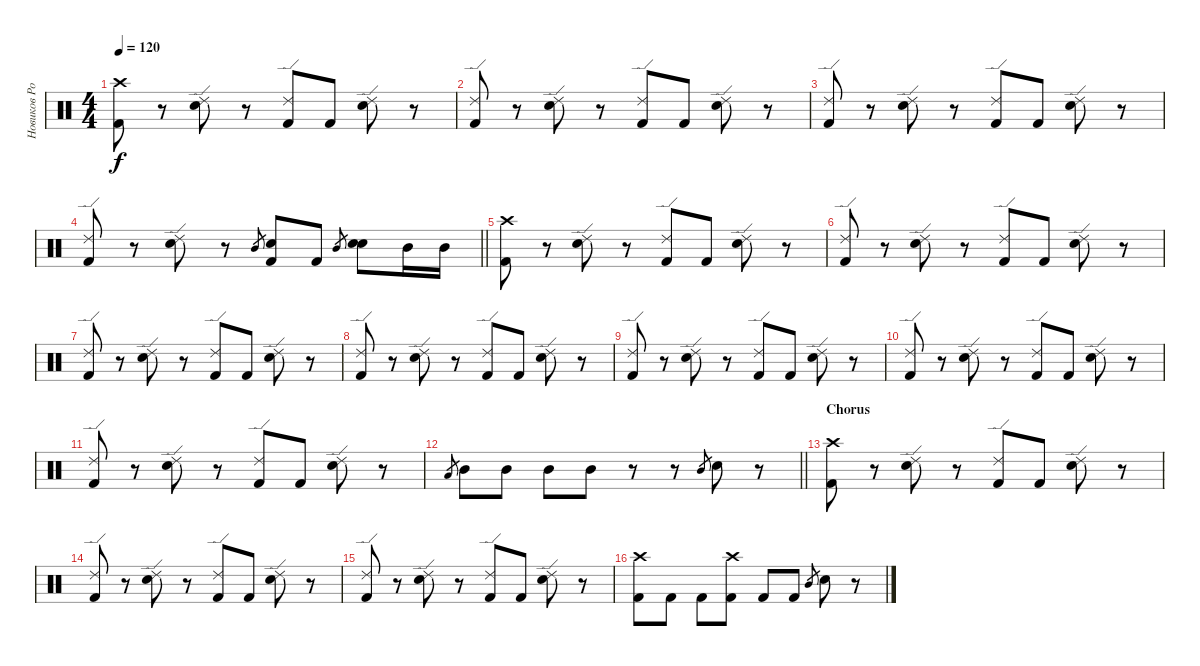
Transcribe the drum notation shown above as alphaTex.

\track ("Новиков Роман  ( Ударные )" "Новиков Ро") {instrument percussion}
\staff {score}
\articulation defaults
\ts (4 4)
\tempo 120
\clef neutral
\ks c
("Crash high (hit)" "Kick (hit) 2").8{dy f} r.8 ("Ride (edge) 2" "Electric Snare (hit)").8 r.8 ("Ride (edge) 2" "Kick (hit) 2").8 "Kick (hit) 2".8 ("Ride (edge) 2" "Electric Snare (hit)").8 r.8 |
("Ride (edge) 2" "Kick (hit) 2").8 r.8 ("Ride (edge) 2" "Electric Snare (hit)").8 r.8 ("Ride (edge) 2" "Kick (hit) 2").8 "Kick (hit) 2".8 ("Ride (edge) 2" "Electric Snare (hit)").8 r.8 |
("Ride (edge) 2" "Kick (hit) 2").8 r.8 ("Ride (edge) 2" "Electric Snare (hit)").8 r.8 ("Ride (edge) 2" "Kick (hit) 2").8 "Kick (hit) 2".8 ("Ride (edge) 2" "Electric Snare (hit)").8 r.8 |
\barLineRight lightlight
("Ride (edge) 2" "Kick (hit) 2").8 r.8 ("Ride (edge) 2" "Electric Snare (hit)").8 r.8 "Mid Tom (hit)"{h}.8{gr} ("Snare (hit) 2" "Kick (hit) 2").8 "Kick (hit) 2".8 "Mid Tom (hit)"{h}.8{gr} ("Snare (hit) 2" "Electric Snare (hit)").8 "Mid Tom (hit)".16 "Mid Tom (hit)".16 |
("Crash high (hit)" "Kick (hit) 2").8 r.8 ("Ride (edge) 2" "Electric Snare (hit)").8 r.8 ("Ride (edge) 2" "Kick (hit) 2").8 "Kick (hit) 2".8 ("Ride (edge) 2" "Electric Snare (hit)").8 r.8 |
("Ride (edge) 2" "Kick (hit) 2").8 r.8 ("Ride (edge) 2" "Electric Snare (hit)").8 r.8 ("Ride (edge) 2" "Kick (hit) 2").8 "Kick (hit) 2".8 ("Ride (edge) 2" "Electric Snare (hit)").8 r.8 |
("Ride (edge) 2" "Kick (hit) 2").8 r.8 ("Ride (edge) 2" "Electric Snare (hit)").8 r.8 ("Ride (edge) 2" "Kick (hit) 2").8 "Kick (hit) 2".8 ("Ride (edge) 2" "Electric Snare (hit)").8 r.8 |
("Ride (edge) 2" "Kick (hit) 2").8 r.8 ("Ride (edge) 2" "Electric Snare (hit)").8 r.8 ("Ride (edge) 2" "Kick (hit) 2").8 "Kick (hit) 2".8 ("Ride (edge) 2" "Electric Snare (hit)").8 r.8 |
("Ride (edge) 2" "Kick (hit) 2").8 r.8 ("Ride (edge) 2" "Electric Snare (hit)").8 r.8 ("Ride (edge) 2" "Kick (hit) 2").8 "Kick (hit) 2".8 ("Ride (edge) 2" "Electric Snare (hit)").8 r.8 |
("Ride (edge) 2" "Kick (hit) 2").8 r.8 ("Ride (edge) 2" "Electric Snare (hit)").8 r.8 ("Ride (edge) 2" "Kick (hit) 2").8 "Kick (hit) 2".8 ("Ride (edge) 2" "Electric Snare (hit)").8 r.8 |
("Ride (edge) 2" "Kick (hit) 2").8 r.8 ("Ride (edge) 2" "Electric Snare (hit)").8 r.8 ("Ride (edge) 2" "Kick (hit) 2").8 "Kick (hit) 2".8 ("Ride (edge) 2" "Electric Snare (hit)").8 r.8 |
\barLineRight lightlight "Low Tom (hit)"{h}.8{gr} "Mid Tom (hit)".8 "Mid Tom (hit)".8 "Mid Tom (hit)".8 "Mid Tom (hit)".8
r.8 r.8 "Mid Tom (hit)"{h}.8{gr} "Snare (hit) 2".8 r.8 |
\section ("" "Chorus")
("Crash high (hit)" "Kick (hit) 2").8 r.8 ("Ride (edge) 2" "Electric Snare (hit)").8 r.8 ("Ride (edge) 2" "Kick (hit) 2").8 "Kick (hit) 2".8 ("Ride (edge) 2" "Electric Snare (hit)").8 r.8 |
("Ride (edge) 2" "Kick (hit) 2").8 r.8 ("Ride (edge) 2" "Electric Snare (hit)").8 r.8 ("Ride (edge) 2" "Kick (hit) 2").8 "Kick (hit) 2".8 ("Ride (edge) 2" "Electric Snare (hit)").8 r.8 |
("Ride (edge) 2" "Kick (hit) 2").8 r.8 ("Ride (edge) 2" "Electric Snare (hit)").8 r.8 ("Ride (edge) 2" "Kick (hit) 2").8 "Kick (hit) 2".8 ("Ride (edge) 2" "Electric Snare (hit)").8 r.8 |
("Crash high (hit)" "Kick (hit) 2").8 "Kick (hit) 2".8 "Kick (hit) 2".8 ("Kick (hit) 2" "Crash high (hit)").8 "Kick (hit) 2".8 "Kick (hit) 2".8 "Mid Tom (hit)"{h}.8{gr} "Snare (hit) 2".8 r.8
